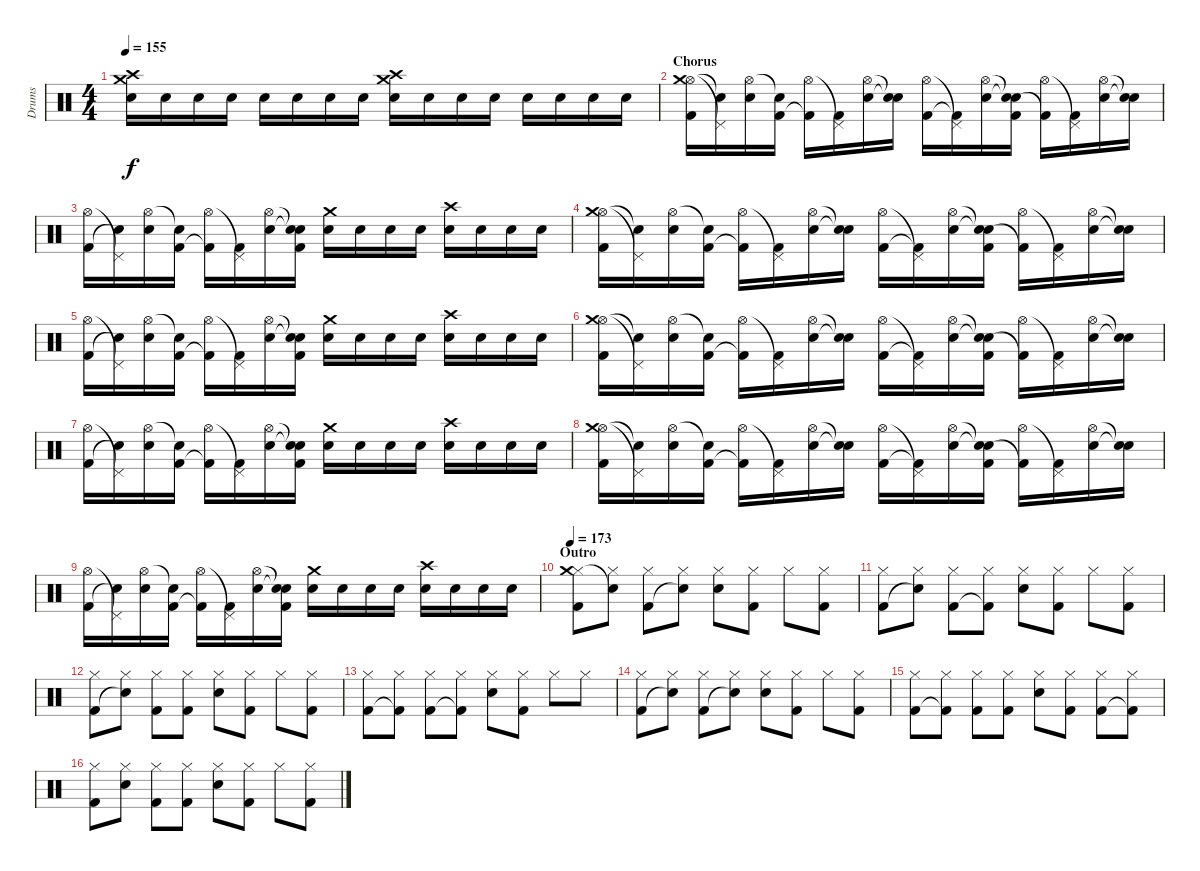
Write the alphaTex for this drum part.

\track ("Drums" "Drums") {instrument percussion}
\staff {score}
\articulation defaults
\ts (4 4)
\tempo 155
\clef neutral
\ks c
("Crash high (hit)" "Crash medium (hit)" "Snare (hit) 2").16{dy f} "Snare (hit) 2".16 "Snare (hit) 2".16 "Snare (hit) 2".16 "Snare (hit) 2".16 "Snare (hit) 2".16 "Snare (hit) 2".16 "Snare (hit) 2".16 ("Crash high (hit)" "Crash medium (hit)" "Electric Snare (hit)").16 "Electric Snare (hit)".16 "Electric Snare (hit)".16 "Electric Snare (hit)".16 "Electric Snare (hit)".16 "Electric Snare (hit)".16 "Electric Snare (hit)".16 "Electric Snare (hit)".16 |
\section ("" "Chorus")
("Hi-Hat (open)" "Crash medium (hit)" "Kick (hit) 2").16 ("Pedal Hi-Hat (hit)"{t} "Snare (hit)"{t}).16 ("Hi-Hat (open)" "Electric Snare (hit)").16 ("Snare (hit)"{t} "Kick (hit) 2").16 ("Hi-Hat (open)" "Kick (hit) 2"{t}).16 ("Pedal Hi-Hat (hit)"{t} "Kick (hit) 2").16 ("Hi-Hat (open)" "Electric Snare (hit)").16 ("Snare (hit)"{t} "Electric Snare (hit)"{t}).16 ("Hi-Hat (open)" "Kick (hit) 2").16 ("Pedal Hi-Hat (hit)"{t} "Kick (hit) 2"{t}).16 ("Hi-Hat (open)" "Electric Snare (hit)").16 ("Snare (hit)"{t} "Electric Snare (hit)"{t} "Kick (hit) 2").16 ("Hi-Hat (open)" "Kick (hit) 2"{t}).16 ("Pedal Hi-Hat (hit)"{t} "Kick (hit) 2").16 ("Hi-Hat (open)" "Electric Snare (hit)").16 ("Snare (hit)"{t} "Electric Snare (hit)"{t}).16 |
("Hi-Hat (open)" "Kick (hit) 2").16 ("Pedal Hi-Hat (hit)"{t} "Snare (hit)"{t}).16 ("Hi-Hat (open)" "Electric Snare (hit)").16 ("Snare (hit)"{t} "Kick (hit) 2").16 ("Hi-Hat (open)" "Kick (hit) 2"{t}).16 ("Pedal Hi-Hat (hit)"{t} "Kick (hit) 2").16 ("Hi-Hat (open)" "Electric Snare (hit)").16 ("Snare (hit)"{t} "Electric Snare (hit)"{t} "Kick (hit) 2").16 ("Crash medium (hit)" "Electric Snare (hit)").16 "Electric Snare (hit)".16 "Electric Snare (hit)".16 "Electric Snare (hit)".16 ("Crash high (hit)" "Electric Snare (hit)").16 "Electric Snare (hit)".16 "Electric Snare (hit)".16 "Electric Snare (hit)".16 |
("Hi-Hat (open)" "Crash medium (hit)" "Kick (hit) 2").16 ("Pedal Hi-Hat (hit)"{t} "Snare (hit)"{t}).16 ("Hi-Hat (open)" "Electric Snare (hit)").16 ("Snare (hit)"{t} "Kick (hit) 2").16 ("Hi-Hat (open)" "Kick (hit) 2"{t}).16 ("Pedal Hi-Hat (hit)"{t} "Kick (hit) 2").16 ("Hi-Hat (open)" "Electric Snare (hit)").16 ("Snare (hit)"{t} "Electric Snare (hit)"{t}).16 ("Hi-Hat (open)" "Kick (hit) 2").16 ("Pedal Hi-Hat (hit)"{t} "Kick (hit) 2"{t}).16 ("Hi-Hat (open)" "Electric Snare (hit)").16 ("Snare (hit)"{t} "Electric Snare (hit)"{t} "Kick (hit) 2").16 ("Hi-Hat (open)" "Kick (hit) 2"{t}).16 ("Pedal Hi-Hat (hit)"{t} "Kick (hit) 2").16 ("Hi-Hat (open)" "Electric Snare (hit)").16 ("Snare (hit)"{t} "Electric Snare (hit)"{t}).16 |
("Hi-Hat (open)" "Kick (hit) 2").16 ("Pedal Hi-Hat (hit)"{t} "Snare (hit)"{t}).16 ("Hi-Hat (open)" "Electric Snare (hit)").16 ("Snare (hit)"{t} "Kick (hit) 2").16 ("Hi-Hat (open)" "Kick (hit) 2"{t}).16 ("Pedal Hi-Hat (hit)"{t} "Kick (hit) 2").16 ("Hi-Hat (open)" "Electric Snare (hit)").16 ("Snare (hit)"{t} "Electric Snare (hit)"{t} "Kick (hit) 2").16 ("Crash medium (hit)" "Electric Snare (hit)").16 "Electric Snare (hit)".16 "Electric Snare (hit)".16 "Electric Snare (hit)".16 ("Crash high (hit)" "Electric Snare (hit)").16 "Electric Snare (hit)".16 "Electric Snare (hit)".16 "Electric Snare (hit)".16 |
("Hi-Hat (open)" "Crash medium (hit)" "Kick (hit) 2").16 ("Pedal Hi-Hat (hit)"{t} "Snare (hit)"{t}).16 ("Hi-Hat (open)" "Electric Snare (hit)").16 ("Snare (hit)"{t} "Kick (hit) 2").16 ("Hi-Hat (open)" "Kick (hit) 2"{t}).16 ("Pedal Hi-Hat (hit)"{t} "Kick (hit) 2").16 ("Hi-Hat (open)" "Electric Snare (hit)").16 ("Snare (hit)"{t} "Electric Snare (hit)"{t}).16 ("Hi-Hat (open)" "Kick (hit) 2").16 ("Pedal Hi-Hat (hit)"{t} "Kick (hit) 2"{t}).16 ("Hi-Hat (open)" "Electric Snare (hit)").16 ("Snare (hit)"{t} "Electric Snare (hit)"{t} "Kick (hit) 2").16 ("Hi-Hat (open)" "Kick (hit) 2"{t}).16 ("Pedal Hi-Hat (hit)"{t} "Kick (hit) 2").16 ("Hi-Hat (open)" "Electric Snare (hit)").16 ("Snare (hit)"{t} "Electric Snare (hit)"{t}).16 |
("Hi-Hat (open)" "Kick (hit) 2").16 ("Pedal Hi-Hat (hit)"{t} "Snare (hit)"{t}).16 ("Hi-Hat (open)" "Electric Snare (hit)").16 ("Snare (hit)"{t} "Kick (hit) 2").16 ("Hi-Hat (open)" "Kick (hit) 2"{t}).16 ("Pedal Hi-Hat (hit)"{t} "Kick (hit) 2").16 ("Hi-Hat (open)" "Electric Snare (hit)").16 ("Snare (hit)"{t} "Electric Snare (hit)"{t} "Kick (hit) 2").16 ("Crash medium (hit)" "Electric Snare (hit)").16 "Electric Snare (hit)".16 "Electric Snare (hit)".16 "Electric Snare (hit)".16 ("Crash high (hit)" "Electric Snare (hit)").16 "Electric Snare (hit)".16 "Electric Snare (hit)".16 "Electric Snare (hit)".16 |
("Hi-Hat (open)" "Crash medium (hit)" "Kick (hit) 2").16 ("Pedal Hi-Hat (hit)"{t} "Snare (hit)"{t}).16 ("Hi-Hat (open)" "Electric Snare (hit)").16 ("Snare (hit)"{t} "Kick (hit) 2").16 ("Hi-Hat (open)" "Kick (hit) 2"{t}).16 ("Pedal Hi-Hat (hit)"{t} "Kick (hit) 2").16 ("Hi-Hat (open)" "Electric Snare (hit)").16 ("Snare (hit)"{t} "Electric Snare (hit)"{t}).16 ("Hi-Hat (open)" "Kick (hit) 2").16 ("Pedal Hi-Hat (hit)"{t} "Kick (hit) 2"{t}).16 ("Hi-Hat (open)" "Electric Snare (hit)").16 ("Snare (hit)"{t} "Electric Snare (hit)"{t} "Kick (hit) 2").16 ("Hi-Hat (open)" "Kick (hit) 2"{t}).16 ("Pedal Hi-Hat (hit)"{t} "Kick (hit) 2").16 ("Hi-Hat (open)" "Electric Snare (hit)").16 ("Snare (hit)"{t} "Electric Snare (hit)"{t}).16 |
("Hi-Hat (open)" "Kick (hit) 2").16 ("Pedal Hi-Hat (hit)"{t} "Snare (hit)"{t}).16 ("Hi-Hat (open)" "Electric Snare (hit)").16 ("Snare (hit)"{t} "Kick (hit) 2").16 ("Hi-Hat (open)" "Kick (hit) 2"{t}).16 ("Pedal Hi-Hat (hit)"{t} "Kick (hit) 2").16 ("Hi-Hat (open)" "Electric Snare (hit)").16 ("Snare (hit)"{t} "Electric Snare (hit)"{t} "Kick (hit) 2").16 ("Crash medium (hit)" "Electric Snare (hit)").16 "Electric Snare (hit)".16 "Electric Snare (hit)".16 "Electric Snare (hit)".16 ("Crash high (hit)" "Electric Snare (hit)").16 "Electric Snare (hit)".16 "Electric Snare (hit)".16 "Electric Snare (hit)".16 |
\section ("" "Outro")
\tempo 173
("Hi-Hat (closed)" "Crash medium (hit)" "Kick (hit) 2").8 ("Hi-Hat (closed)" "Snare (hit)"{t}).8 ("Hi-Hat (closed)" "Kick (hit) 2").8 ("Hi-Hat (closed)" "Snare (hit)"{t}).8 ("Hi-Hat (closed)" "Electric Snare (hit)").8 ("Hi-Hat (closed)" "Kick (hit) 2").8 "Hi-Hat (closed)".8 ("Hi-Hat (closed)" "Kick (hit) 2").8 |
("Hi-Hat (closed)" "Kick (hit) 2").8 ("Hi-Hat (closed)" "Snare (hit)"{t}).8 ("Hi-Hat (closed)" "Kick (hit) 2").8 ("Hi-Hat (closed)" "Kick (hit) 2"{t}).8 ("Hi-Hat (closed)" "Electric Snare (hit)").8 ("Hi-Hat (closed)" "Kick (hit) 2").8 "Hi-Hat (closed)".8 ("Hi-Hat (closed)" "Kick (hit) 2").8 |
("Hi-Hat (closed)" "Kick (hit) 2").8 ("Hi-Hat (closed)" "Snare (hit)"{t}).8 ("Hi-Hat (closed)" "Kick (hit) 2").8 ("Hi-Hat (closed)" "Kick (hit) 2").8 ("Hi-Hat (closed)" "Electric Snare (hit)").8 ("Hi-Hat (closed)" "Kick (hit) 2").8 "Hi-Hat (closed)".8 ("Hi-Hat (closed)" "Kick (hit) 2").8 |
("Hi-Hat (closed)" "Kick (hit) 2").8 ("Hi-Hat (closed)" "Kick (hit) 2"{t}).8 ("Hi-Hat (closed)" "Kick (hit) 2").8 ("Hi-Hat (closed)" "Kick (hit) 2"{t}).8 ("Hi-Hat (closed)" "Electric Snare (hit)").8 ("Hi-Hat (closed)" "Kick (hit) 2").8 "Hi-Hat (closed)".8 "Hi-Hat (closed)".8 |
("Hi-Hat (closed)" "Kick (hit) 2").8 ("Hi-Hat (closed)" "Snare (hit)"{t}).8 ("Hi-Hat (closed)" "Kick (hit) 2").8 ("Hi-Hat (closed)" "Snare (hit)"{t}).8 ("Hi-Hat (closed)" "Electric Snare (hit)").8 ("Hi-Hat (closed)" "Kick (hit) 2").8 "Hi-Hat (closed)".8 ("Hi-Hat (closed)" "Kick (hit) 2").8 |
("Hi-Hat (closed)" "Kick (hit) 2").8 ("Hi-Hat (closed)" "Kick (hit) 2"{t}).8 ("Hi-Hat (closed)" "Kick (hit) 2").8 ("Hi-Hat (closed)" "Kick (hit) 2").8 ("Hi-Hat (closed)" "Electric Snare (hit)").8 ("Hi-Hat (closed)" "Kick (hit) 2").8 ("Hi-Hat (closed)" "Kick (hit) 2").8 ("Hi-Hat (closed)" "Kick (hit) 2"{t}).8 |
("Hi-Hat (closed)" "Kick (hit) 2").8 ("Hi-Hat (closed)" "Electric Snare (hit)").8 ("Hi-Hat (closed)" "Kick (hit) 2").8 ("Hi-Hat (closed)" "Kick (hit) 2").8 ("Hi-Hat (closed)" "Electric Snare (hit)").8 ("Hi-Hat (closed)" "Kick (hit) 2").8 "Hi-Hat (closed)".8 ("Hi-Hat (closed)" "Kick (hit) 2").8
